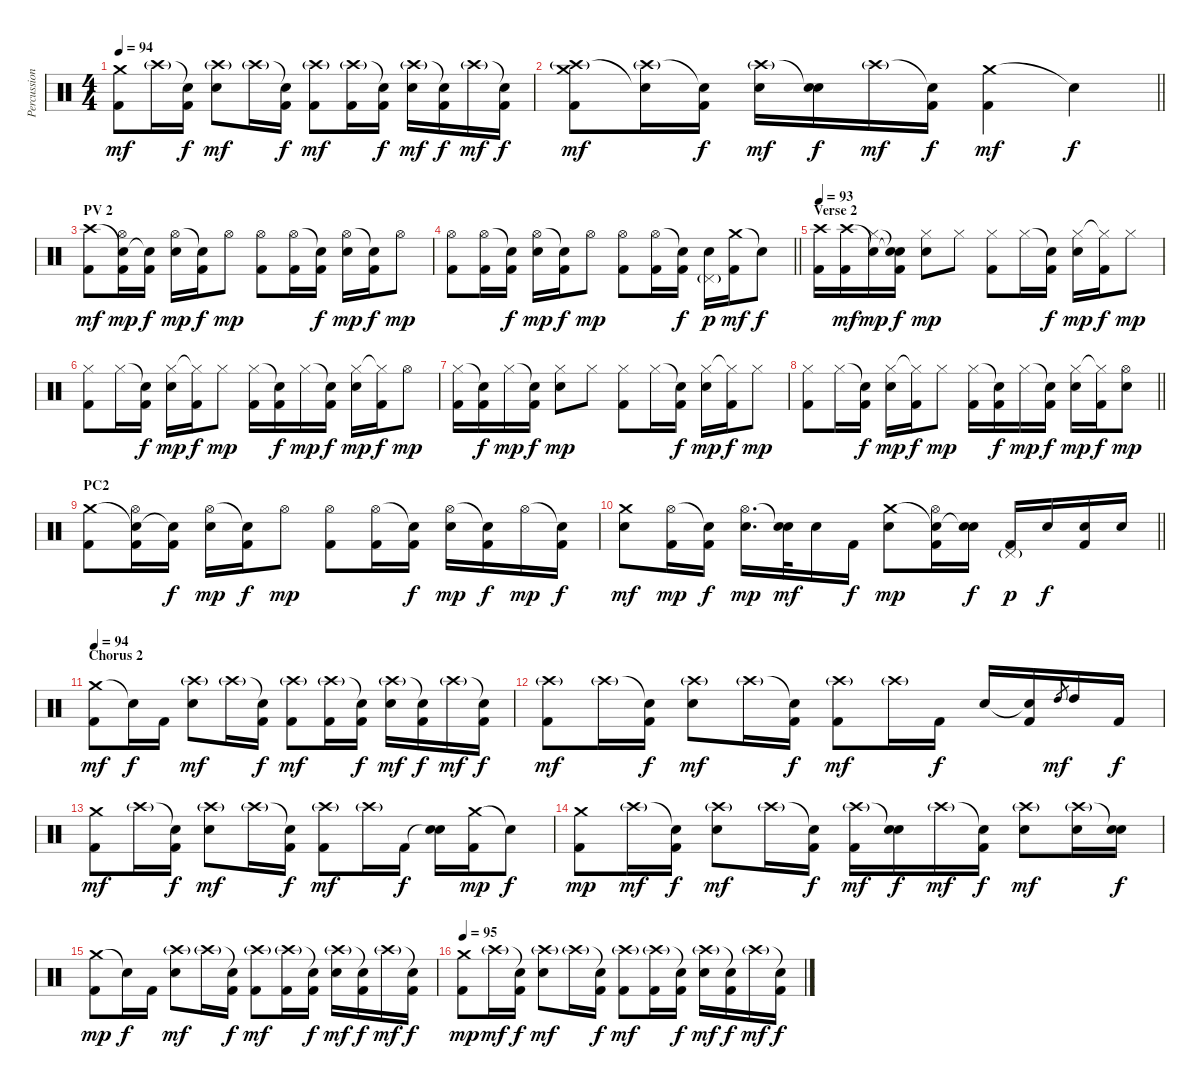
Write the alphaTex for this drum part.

\track ("Percussions" "Percussion") {instrument percussion}
\staff {score}
\articulation defaults
\ts (4 4)
\tempo 94
\clef neutral
\ks c
("Crash medium (hit)" "Kick (hit) 2").8{dy mf} "Crash high (hit)"{g}.16 ("Snare (hit)"{t} "Kick (hit) 2").16{dy f} ("Crash high (hit)"{g} "Electric Snare (hit)").8{dy mf} "Crash high (hit)"{g}.16 ("Snare (hit)"{t} "Kick (hit) 2").16{dy f} ("Crash high (hit)"{g} "Kick (hit) 2").8{dy mf} ("Crash high (hit)"{g} "Kick (hit) 2").16 ("Snare (hit)"{t} "Kick (hit) 2").16{dy f} ("Crash high (hit)"{g} "Electric Snare (hit)").16{dy mf} ("Snare (hit)"{t} "Kick (hit) 2").16{dy f} "Crash high (hit)"{g}.16{dy mf} ("Snare (hit)"{t} "Kick (hit) 2").16{dy f} |
\barLineRight lightlight
("Crash medium (hit)" "Crash high (hit)"{g} "Kick (hit) 2").8{dy mf} ("Crash high (hit)"{g} "Snare (hit)"{t}).16 ("Snare (hit)"{t} "Kick (hit) 2").16{dy f} ("Crash high (hit)"{g} "Electric Snare (hit)").16{dy mf} ("Snare (hit)"{t} "Electric Snare (hit)").16{dy f} "Crash high (hit)"{g}.16{dy mf} ("Snare (hit)"{t} "Kick (hit) 2").16{dy f} ("Crash medium (hit)" "Kick (hit) 2").4{dy mf} "Snare (hit)"{t}.4{dy f} |
\section ("" "PV 2")
("Crash high (hit)" "Kick (hit) 2").8{dy mf} ("Snare (hit)"{t} "Hi-Hat (open)" "Kick (hit) 2").16{dy mp} ("Snare (hit)"{t} "Kick (hit) 2").16{dy f} ("Hi-Hat (open)" "Electric Snare (hit)").16{dy mp} ("Snare (hit)"{t} "Kick (hit) 2").16{dy f} "Hi-Hat (open)".8{dy mp} ("Hi-Hat (open)" "Kick (hit) 2").8 ("Hi-Hat (open)" "Kick (hit) 2").16 ("Snare (hit)"{t} "Kick (hit) 2").16{dy f} ("Hi-Hat (open)" "Electric Snare (hit)").16{dy mp} ("Snare (hit)"{t} "Kick (hit) 2").16{dy f} "Hi-Hat (open)".8{dy mp} |
\barLineRight lightlight
("Hi-Hat (open)" "Kick (hit) 2").8 ("Hi-Hat (open)" "Kick (hit) 2").16 ("Snare (hit)"{t} "Kick (hit) 2").16{dy f} ("Hi-Hat (open)" "Electric Snare (hit)").16{dy mp} ("Snare (hit)"{t} "Kick (hit) 2").16{dy f} "Hi-Hat (open)".8{dy mp} ("Hi-Hat (open)" "Kick (hit) 2").8 ("Hi-Hat (open)" "Kick (hit) 2").16 ("Snare (hit)"{t} "Kick (hit) 2").16{dy f} ("Pedal Hi-Hat (hit)"{g} "Electric Snare (hit)").16{dy p} ("Crash medium (hit)" "Kick (hit) 2").16{dy mf} "Snare (hit)"{t}.8{dy f} |
\section ("" "Verse 2")
\tempo 93
("Crash high (hit)" "Kick (hit) 2").16 ("Crash high (hit)" "Kick (hit) 2").16{dy mf} ("Snare (hit)"{t} "Hi-Hat (closed)").16{dy mp} ("Snare (hit)"{t} "Snare (hit)"{t} "Kick (hit) 2").16{dy f} ("Hi-Hat (closed)" "Electric Snare (hit)").8{dy mp} "Hi-Hat (closed)".8 ("Hi-Hat (closed)" "Kick (hit) 2").8 "Hi-Hat (closed)".16 ("Snare (hit)"{t} "Kick (hit) 2").16{dy f} ("Hi-Hat (closed)" "Electric Snare (hit)").16{dy mp} ("Hi-Hat (closed)"{t} "Kick (hit) 2").16{dy f} "Hi-Hat (closed)".8{dy mp} |
("Hi-Hat (closed)" "Kick (hit) 2").8 "Hi-Hat (closed)".16 ("Snare (hit)"{t} "Kick (hit) 2").16{dy f} ("Hi-Hat (closed)" "Electric Snare (hit)").16{dy mp} ("Hi-Hat (closed)"{t} "Kick (hit) 2").16{dy f} "Hi-Hat (closed)".8{dy mp} ("Hi-Hat (closed)" "Kick (hit) 2").16 ("Snare (hit)"{t} "Kick (hit) 2").16{dy f} "Hi-Hat (closed)".16{dy mp} ("Snare (hit)"{t} "Kick (hit) 2").16{dy f} ("Hi-Hat (closed)" "Electric Snare (hit)").16{dy mp} ("Hi-Hat (closed)"{t} "Kick (hit) 2").16{dy f} "Hi-Hat (open)".8{dy mp} |
("Hi-Hat (closed)" "Kick (hit) 2").16 ("Snare (hit)"{t} "Kick (hit) 2").16{dy f} "Hi-Hat (closed)".16{dy mp} ("Snare (hit)"{t} "Kick (hit) 2").16{dy f} ("Hi-Hat (closed)" "Electric Snare (hit)").8{dy mp} "Hi-Hat (closed)".8 ("Hi-Hat (closed)" "Kick (hit) 2").8 "Hi-Hat (closed)".16 ("Snare (hit)"{t} "Kick (hit) 2").16{dy f} ("Hi-Hat (closed)" "Electric Snare (hit)").16{dy mp} ("Hi-Hat (closed)"{t} "Kick (hit) 2").16{dy f} "Hi-Hat (closed)".8{dy mp} |
\barLineRight lightlight
("Hi-Hat (closed)" "Kick (hit) 2").8 "Hi-Hat (closed)".16 ("Snare (hit)"{t} "Kick (hit) 2").16{dy f} ("Hi-Hat (closed)" "Electric Snare (hit)").16{dy mp} ("Hi-Hat (closed)"{t} "Kick (hit) 2").16{dy f} "Hi-Hat (closed)".8{dy mp} ("Hi-Hat (closed)" "Kick (hit) 2").16 ("Snare (hit)"{t} "Kick (hit) 2").16{dy f} "Hi-Hat (closed)".16{dy mp} ("Snare (hit)"{t} "Kick (hit) 2").16{dy f} ("Hi-Hat (closed)" "Electric Snare (hit)").16{dy mp} ("Hi-Hat (closed)"{t} "Kick (hit) 2").16{dy f} ("Hi-Hat (open)" "Electric Snare (hit)").8{dy mp} |
\section ("" "PC2")
("Crash medium (hit)" "Kick (hit) 2").8 ("Snare (hit)"{t} "Hi-Hat (open)" "Kick (hit) 2").16 ("Snare (hit)"{t} "Kick (hit) 2").16{dy f} ("Hi-Hat (open)" "Electric Snare (hit)").16{dy mp} ("Snare (hit)"{t} "Kick (hit) 2").16{dy f} "Hi-Hat (open)".8{dy mp} ("Hi-Hat (open)" "Kick (hit) 2").8 ("Hi-Hat (open)" "Kick (hit) 2").16 ("Snare (hit)"{t} "Kick (hit) 2").16{dy f} ("Hi-Hat (open)" "Electric Snare (hit)").16{dy mp} ("Snare (hit)"{t} "Kick (hit) 2").16{dy f} "Hi-Hat (open)".16{dy mp} ("Snare (hit)"{t} "Kick (hit) 2").16{dy f} |
\barLineRight lightlight
("Crash medium (hit)" "Electric Snare (hit)").8{dy mf} ("Hi-Hat (open)" "Kick (hit) 2").16{dy mp} ("Snare (hit)"{t} "Kick (hit) 2").16{dy f} ("Hi-Hat (open)" "Electric Snare (hit)").16{d dy mp} ("Snare (hit)"{t} "Electric Snare (hit)").32{dy mf} "Electric Snare (hit)".16 "Kick (hit) 2".16{dy f} ("Crash medium (hit)" "Electric Snare (hit)").8{dy mp} ("Snare (hit)"{t} "Hi-Hat (open)" "Kick (hit) 2").16 ("Snare (hit)"{t} "Electric Snare (hit)").16{dy f} ("Pedal Hi-Hat (hit)"{g} "Kick (hit) 2").16{dy p} "Electric Snare (hit)".16{dy f} ("Electric Snare (hit)" "Kick (hit) 2").16 "Electric Snare (hit)".16 |
\section ("" "Chorus 2")
\tempo 94
("Crash medium (hit)" "Kick (hit) 2").8{dy mf} "Snare (hit)"{t}.16{dy f} "Kick (hit) 2".16 ("Crash high (hit)"{g} "Electric Snare (hit)").8{dy mf} "Crash high (hit)"{g}.16 ("Snare (hit)"{t} "Kick (hit) 2").16{dy f} ("Crash high (hit)"{g} "Kick (hit) 2").8{dy mf} ("Crash high (hit)"{g} "Kick (hit) 2").16 ("Snare (hit)"{t} "Kick (hit) 2").16{dy f} ("Crash high (hit)"{g} "Electric Snare (hit)").16{dy mf} ("Snare (hit)"{t} "Kick (hit) 2").16{dy f} "Crash high (hit)"{g}.16{dy mf} ("Snare (hit)"{t} "Kick (hit) 2").16{dy f} |
("Crash high (hit)"{g} "Kick (hit) 2").8{dy mf} "Crash high (hit)"{g}.16 ("Snare (hit)"{t} "Kick (hit) 2").16{dy f} ("Crash high (hit)"{g} "Electric Snare (hit)").8{dy mf} "Crash high (hit)"{g}.16 ("Snare (hit)"{t} "Kick (hit) 2").16{dy f} ("Crash high (hit)"{g} "Kick (hit) 2").8{dy mf} "Crash high (hit)"{g}.16 "Kick (hit) 2".16{dy f} "Electric Snare (hit)".16 ("Snare (hit)"{t} "Kick (hit) 2").16 "High Tom (hit)".8{gr dy mf} "High Tom (hit)".16 "Kick (hit) 2".16{dy f} |
("Crash medium (hit)" "Kick (hit) 2").8{dy mf} "Crash high (hit)"{g}.16 ("Snare (hit)"{t} "Kick (hit) 2").16{dy f} ("Crash high (hit)"{g} "Electric Snare (hit)").8{dy mf} "Crash high (hit)"{g}.16 ("Snare (hit)"{t} "Kick (hit) 2").16{dy f} ("Crash high (hit)"{g} "Kick (hit) 2").8{dy mf} "Crash high (hit)"{g}.16 "Kick (hit) 2".16{dy f} ("Snare (hit)"{t} "Electric Snare (hit)").16 ("Crash medium (hit)" "Kick (hit) 2").16{dy mp} "Snare (hit)"{t}.8{dy f} |
("Crash medium (hit)" "Kick (hit) 2").8{dy mp} "Crash high (hit)"{g}.16{dy mf} ("Snare (hit)"{t} "Kick (hit) 2").16{dy f} ("Crash high (hit)"{g} "Electric Snare (hit)").8{dy mf} "Crash high (hit)"{g}.16 ("Snare (hit)"{t} "Kick (hit) 2").16{dy f} ("Crash high (hit)"{g} "Kick (hit) 2").16{dy mf} ("Snare (hit)"{t} "Electric Snare (hit)").16{dy f} "Crash high (hit)"{g}.16{dy mf} ("Snare (hit)"{t} "Kick (hit) 2").16{dy f} ("Crash high (hit)"{g} "Electric Snare (hit)").8{dy mf} ("Crash high (hit)"{g} "Electric Snare (hit)").16 ("Snare (hit)"{t} "Electric Snare (hit)").16{dy f} |
("Crash medium (hit)" "Kick (hit) 2").8{dy mp} "Snare (hit)"{t}.16{dy f} "Kick (hit) 2".16 ("Crash high (hit)"{g} "Electric Snare (hit)").8{dy mf} "Crash high (hit)"{g}.16 ("Snare (hit)"{t} "Kick (hit) 2").16{dy f} ("Crash high (hit)"{g} "Kick (hit) 2").8{dy mf} ("Crash high (hit)"{g} "Kick (hit) 2").16 ("Snare (hit)"{t} "Kick (hit) 2").16{dy f} ("Crash high (hit)"{g} "Electric Snare (hit)").16{dy mf} ("Snare (hit)"{t} "Kick (hit) 2").16{dy f} "Crash high (hit)"{g}.16{dy mf} ("Snare (hit)"{t} "Kick (hit) 2").16{dy f} |
\tempo 95
("Crash medium (hit)" "Kick (hit) 2").8{dy mp} "Crash high (hit)"{g}.16{dy mf} ("Snare (hit)"{t} "Kick (hit) 2").16{dy f} ("Crash high (hit)"{g} "Electric Snare (hit)").8{dy mf} "Crash high (hit)"{g}.16 ("Snare (hit)"{t} "Kick (hit) 2").16{dy f} ("Crash high (hit)"{g} "Kick (hit) 2").8{dy mf} ("Crash high (hit)"{g} "Kick (hit) 2").16 ("Snare (hit)"{t} "Kick (hit) 2").16{dy f} ("Crash high (hit)"{g} "Electric Snare (hit)").16{dy mf} ("Snare (hit)"{t} "Kick (hit) 2").16{dy f} "Crash high (hit)"{g}.16{dy mf} ("Snare (hit)"{t} "Kick (hit) 2").16{dy f}
